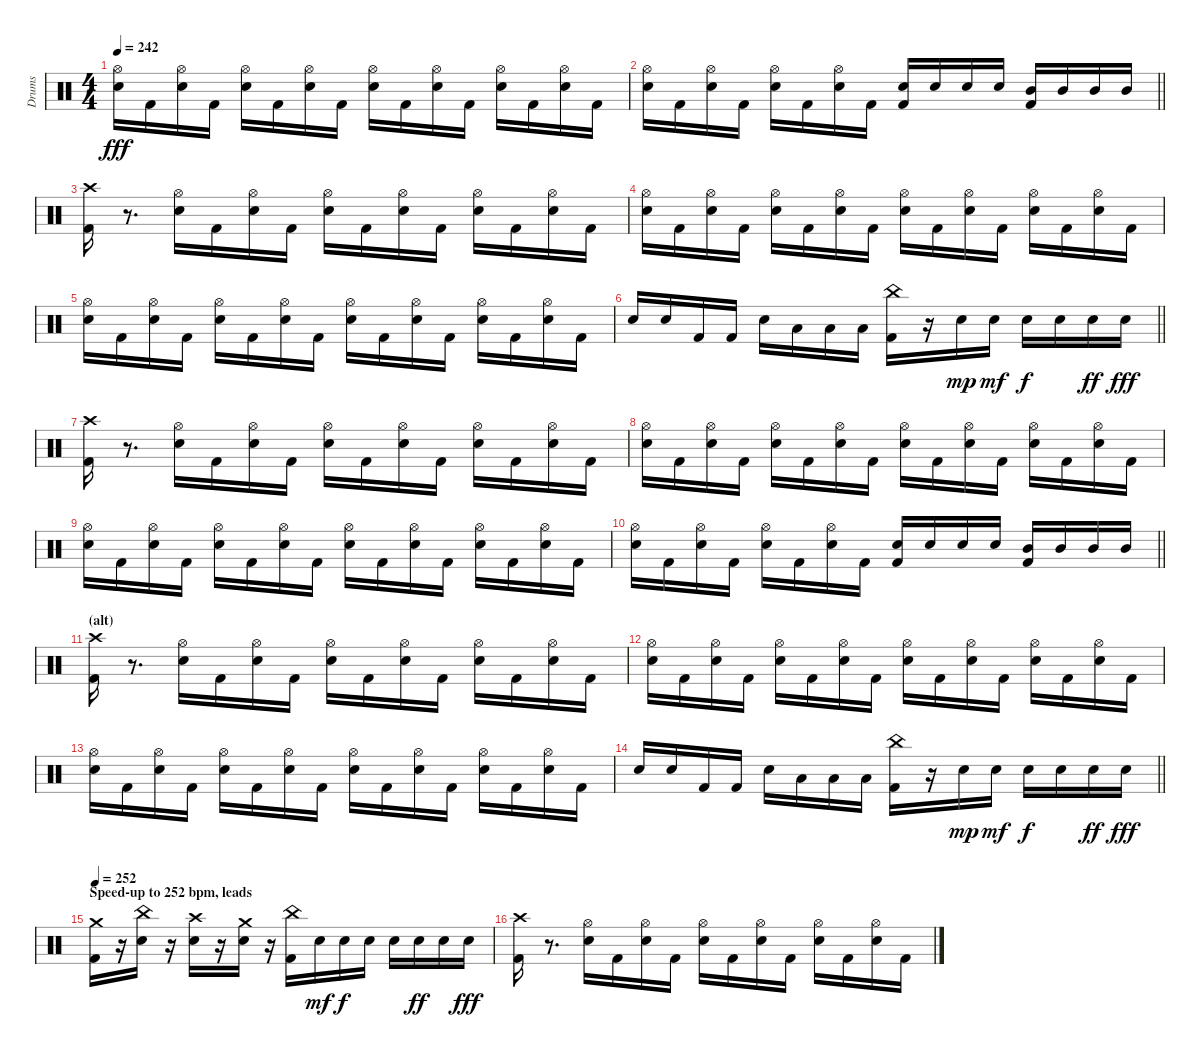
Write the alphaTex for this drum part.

\track ("Drums" "Drums") {instrument percussion}
\staff {score}
\articulation defaults
\ts (4 4)
\tempo 242
\clef neutral
\ks c
("Snare (hit) 2" "Hi-Hat (open)").16{dy fff} "Kick (hit) 2".16 ("Snare (hit) 2" "Hi-Hat (open)").16 "Kick (hit) 2".16 ("Snare (hit) 2" "Hi-Hat (open)").16 "Kick (hit) 2".16 ("Snare (hit) 2" "Hi-Hat (open)").16 "Kick (hit) 2".16 ("Snare (hit) 2" "Hi-Hat (open)").16 "Kick (hit) 2".16 ("Snare (hit) 2" "Hi-Hat (open)").16 "Kick (hit) 2".16 ("Snare (hit) 2" "Hi-Hat (open)").16 "Kick (hit) 2".16 ("Snare (hit) 2" "Hi-Hat (open)").16 "Kick (hit) 2".16 |
\barLineRight lightlight
("Snare (hit) 2" "Hi-Hat (open)").16 "Kick (hit) 2".16 ("Snare (hit) 2" "Hi-Hat (open)").16 "Kick (hit) 2".16 ("Snare (hit) 2" "Hi-Hat (open)").16 "Kick (hit) 2".16 ("Snare (hit) 2" "Hi-Hat (open)").16 "Kick (hit) 2".16 ("Kick (hit) 2" "Snare (hit) 2").16 "Snare (hit) 2".16 "Snare (hit) 2".16 "Snare (hit) 2".16 ("Kick (hit) 2" "Mid Tom (hit)").16 "Mid Tom (hit)".16 "Mid Tom (hit)".16 "Mid Tom (hit)".16 |
("Kick (hit) 2" "Crash high (hit)").16 r.8{d} ("Snare (hit) 2" "Hi-Hat (open)").16 "Kick (hit) 2".16 ("Snare (hit) 2" "Hi-Hat (open)").16 "Kick (hit) 2".16 ("Snare (hit) 2" "Hi-Hat (open)").16 "Kick (hit) 2".16 ("Snare (hit) 2" "Hi-Hat (open)").16 "Kick (hit) 2".16 ("Snare (hit) 2" "Hi-Hat (open)").16 "Kick (hit) 2".16 ("Snare (hit) 2" "Hi-Hat (open)").16 "Kick (hit) 2".16 |
("Snare (hit) 2" "Hi-Hat (open)").16 "Kick (hit) 2".16 ("Snare (hit) 2" "Hi-Hat (open)").16 "Kick (hit) 2".16 ("Snare (hit) 2" "Hi-Hat (open)").16 "Kick (hit) 2".16 ("Snare (hit) 2" "Hi-Hat (open)").16 "Kick (hit) 2".16 ("Snare (hit) 2" "Hi-Hat (open)").16 "Kick (hit) 2".16 ("Snare (hit) 2" "Hi-Hat (open)").16 "Kick (hit) 2".16 ("Snare (hit) 2" "Hi-Hat (open)").16 "Kick (hit) 2".16 ("Snare (hit) 2" "Hi-Hat (open)").16 "Kick (hit) 2".16 |
("Snare (hit) 2" "Hi-Hat (open)").16 "Kick (hit) 2".16 ("Snare (hit) 2" "Hi-Hat (open)").16 "Kick (hit) 2".16 ("Snare (hit) 2" "Hi-Hat (open)").16 "Kick (hit) 2".16 ("Snare (hit) 2" "Hi-Hat (open)").16 "Kick (hit) 2".16 ("Snare (hit) 2" "Hi-Hat (open)").16 "Kick (hit) 2".16 ("Snare (hit) 2" "Hi-Hat (open)").16 "Kick (hit) 2".16 ("Snare (hit) 2" "Hi-Hat (open)").16 "Kick (hit) 2".16 ("Snare (hit) 2" "Hi-Hat (open)").16 "Kick (hit) 2".16 |
\barLineRight lightlight "Snare (hit) 2".16 "Snare (hit) 2".16 "Kick (hit) 2".16 "Kick (hit) 2".16 "Snare (hit) 2".16 "Low Tom (hit)".16 "Low Tom (hit)".16 "Low Tom (hit)".16
("Kick (hit) 2" "China (hit)").16 r.16 "Snare (hit) 2".16{dy mp} "Snare (hit) 2".16{dy mf} "Snare (hit) 2".16{dy f} "Snare (hit) 2".16 "Snare (hit) 2".16{dy ff} "Snare (hit) 2".16{dy fff} |
("Kick (hit) 2" "Crash high (hit)").16 r.8{d} ("Snare (hit) 2" "Hi-Hat (open)").16 "Kick (hit) 2".16 ("Snare (hit) 2" "Hi-Hat (open)").16 "Kick (hit) 2".16 ("Snare (hit) 2" "Hi-Hat (open)").16 "Kick (hit) 2".16 ("Snare (hit) 2" "Hi-Hat (open)").16 "Kick (hit) 2".16 ("Snare (hit) 2" "Hi-Hat (open)").16 "Kick (hit) 2".16 ("Snare (hit) 2" "Hi-Hat (open)").16 "Kick (hit) 2".16 |
("Snare (hit) 2" "Hi-Hat (open)").16 "Kick (hit) 2".16 ("Snare (hit) 2" "Hi-Hat (open)").16 "Kick (hit) 2".16 ("Snare (hit) 2" "Hi-Hat (open)").16 "Kick (hit) 2".16 ("Snare (hit) 2" "Hi-Hat (open)").16 "Kick (hit) 2".16 ("Snare (hit) 2" "Hi-Hat (open)").16 "Kick (hit) 2".16 ("Snare (hit) 2" "Hi-Hat (open)").16 "Kick (hit) 2".16 ("Snare (hit) 2" "Hi-Hat (open)").16 "Kick (hit) 2".16 ("Snare (hit) 2" "Hi-Hat (open)").16 "Kick (hit) 2".16 |
("Snare (hit) 2" "Hi-Hat (open)").16 "Kick (hit) 2".16 ("Snare (hit) 2" "Hi-Hat (open)").16 "Kick (hit) 2".16 ("Snare (hit) 2" "Hi-Hat (open)").16 "Kick (hit) 2".16 ("Snare (hit) 2" "Hi-Hat (open)").16 "Kick (hit) 2".16 ("Snare (hit) 2" "Hi-Hat (open)").16 "Kick (hit) 2".16 ("Snare (hit) 2" "Hi-Hat (open)").16 "Kick (hit) 2".16 ("Snare (hit) 2" "Hi-Hat (open)").16 "Kick (hit) 2".16 ("Snare (hit) 2" "Hi-Hat (open)").16 "Kick (hit) 2".16 |
\barLineRight lightlight
("Snare (hit) 2" "Hi-Hat (open)").16 "Kick (hit) 2".16 ("Snare (hit) 2" "Hi-Hat (open)").16 "Kick (hit) 2".16 ("Snare (hit) 2" "Hi-Hat (open)").16 "Kick (hit) 2".16 ("Snare (hit) 2" "Hi-Hat (open)").16 "Kick (hit) 2".16 ("Kick (hit) 2" "Snare (hit) 2").16 "Snare (hit) 2".16 "Snare (hit) 2".16 "Snare (hit) 2".16 ("Kick (hit) 2" "Mid Tom (hit)").16 "Mid Tom (hit)".16 "Mid Tom (hit)".16 "Mid Tom (hit)".16 |
\section ("" "(alt)")
("Kick (hit) 2" "Crash high (hit)").16 r.8{d} ("Snare (hit) 2" "Hi-Hat (open)").16 "Kick (hit) 2".16 ("Snare (hit) 2" "Hi-Hat (open)").16 "Kick (hit) 2".16 ("Snare (hit) 2" "Hi-Hat (open)").16 "Kick (hit) 2".16 ("Snare (hit) 2" "Hi-Hat (open)").16 "Kick (hit) 2".16 ("Snare (hit) 2" "Hi-Hat (open)").16 "Kick (hit) 2".16 ("Snare (hit) 2" "Hi-Hat (open)").16 "Kick (hit) 2".16 |
("Snare (hit) 2" "Hi-Hat (open)").16 "Kick (hit) 2".16 ("Snare (hit) 2" "Hi-Hat (open)").16 "Kick (hit) 2".16 ("Snare (hit) 2" "Hi-Hat (open)").16 "Kick (hit) 2".16 ("Snare (hit) 2" "Hi-Hat (open)").16 "Kick (hit) 2".16 ("Snare (hit) 2" "Hi-Hat (open)").16 "Kick (hit) 2".16 ("Snare (hit) 2" "Hi-Hat (open)").16 "Kick (hit) 2".16 ("Snare (hit) 2" "Hi-Hat (open)").16 "Kick (hit) 2".16 ("Snare (hit) 2" "Hi-Hat (open)").16 "Kick (hit) 2".16 |
("Snare (hit) 2" "Hi-Hat (open)").16 "Kick (hit) 2".16 ("Snare (hit) 2" "Hi-Hat (open)").16 "Kick (hit) 2".16 ("Snare (hit) 2" "Hi-Hat (open)").16 "Kick (hit) 2".16 ("Snare (hit) 2" "Hi-Hat (open)").16 "Kick (hit) 2".16 ("Snare (hit) 2" "Hi-Hat (open)").16 "Kick (hit) 2".16 ("Snare (hit) 2" "Hi-Hat (open)").16 "Kick (hit) 2".16 ("Snare (hit) 2" "Hi-Hat (open)").16 "Kick (hit) 2".16 ("Snare (hit) 2" "Hi-Hat (open)").16 "Kick (hit) 2".16 |
\barLineRight lightlight "Snare (hit) 2".16 "Snare (hit) 2".16 "Kick (hit) 2".16 "Kick (hit) 2".16 "Snare (hit) 2".16 "Low Tom (hit)".16 "Low Tom (hit)".16 "Low Tom (hit)".16
("Kick (hit) 2" "China (hit)").16 r.16 "Snare (hit) 2".16{dy mp} "Snare (hit) 2".16{dy mf} "Snare (hit) 2".16{dy f} "Snare (hit) 2".16 "Snare (hit) 2".16{dy ff} "Snare (hit) 2".16{dy fff} |
\section ("" "Speed-up to 252 bpm, leads")
\tempo 252
("Kick (hit) 2" "Crash medium (hit)").16 r.16 ("Snare (hit) 2" "China (hit)").16 r.16 ("Snare (hit) 2" "Crash high (hit)").16 r.16 ("Snare (hit) 2" "Crash medium (hit)").16 r.16 ("Kick (hit) 2" "China (hit)").16 "Snare (hit) 2".16{dy mf} "Snare (hit) 2".16{dy f} "Snare (hit) 2".16 "Snare (hit) 2".16 "Snare (hit) 2".16{dy ff} "Snare (hit) 2".16 "Snare (hit) 2".16{dy fff} |
("Kick (hit) 2" "Crash high (hit)").16 r.8{d} ("Snare (hit) 2" "Hi-Hat (open)").16 "Kick (hit) 2".16 ("Snare (hit) 2" "Hi-Hat (open)").16 "Kick (hit) 2".16 ("Snare (hit) 2" "Hi-Hat (open)").16 "Kick (hit) 2".16 ("Snare (hit) 2" "Hi-Hat (open)").16 "Kick (hit) 2".16 ("Snare (hit) 2" "Hi-Hat (open)").16 "Kick (hit) 2".16 ("Snare (hit) 2" "Hi-Hat (open)").16 "Kick (hit) 2".16
